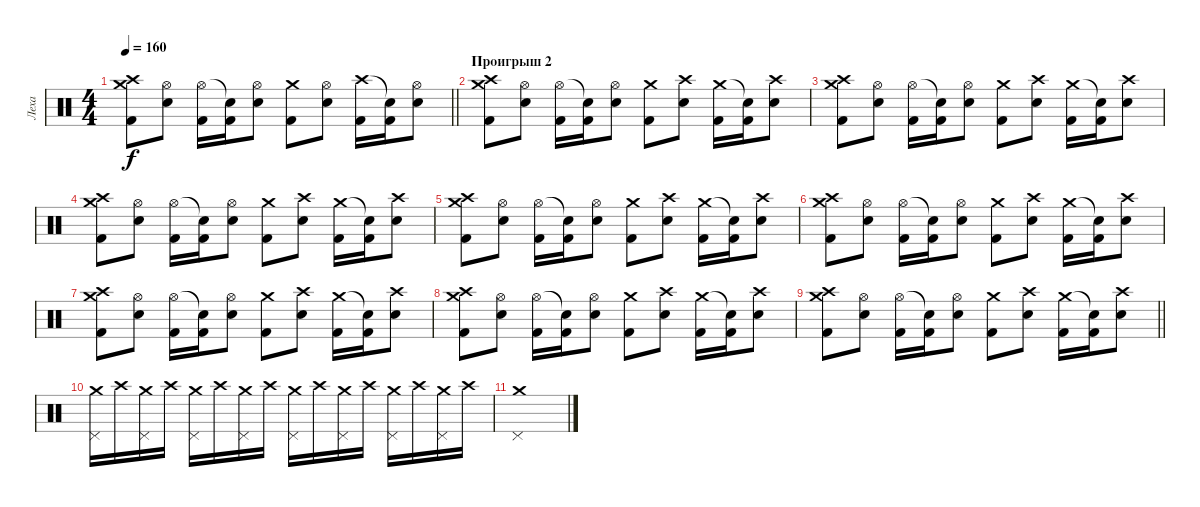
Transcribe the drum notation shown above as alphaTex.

\track ("Леха" "Леха") {instrument percussion}
\staff {score}
\articulation defaults
\ts (4 4)
\tempo 160
\clef neutral
\barLineRight lightlight
\ks c
("Crash medium (hit)" "Crash high (hit)" "Kick (hit) 2").8{dy f} ("Hi-Hat (open)" "Snare (hit) 2").8 ("Hi-Hat (open)" "Kick (hit) 2").16 ("Snare (hit)"{t} "Kick (hit) 2").16 ("Hi-Hat (open)" "Snare (hit) 2").8 ("Crash medium (hit)" "Kick (hit) 2").8 ("Hi-Hat (open)" "Snare (hit) 2").8 ("Crash high (hit)" "Kick (hit) 2").16 ("Snare (hit)"{t} "Kick (hit) 2").16 ("Hi-Hat (open)" "Snare (hit) 2").8 |
\section ("" "Проигрыш 2")
("Crash medium (hit)" "Crash high (hit)" "Kick (hit) 2").8 ("Hi-Hat (open)" "Snare (hit) 2").8 ("Hi-Hat (open)" "Kick (hit) 2").16 ("Snare (hit)"{t} "Kick (hit) 2").16 ("Hi-Hat (open)" "Snare (hit) 2").8 ("Crash medium (hit)" "Kick (hit) 2").8 ("Crash high (hit)" "Snare (hit) 2").8 ("Crash medium (hit)" "Kick (hit) 2").16 ("Snare (hit)"{t} "Kick (hit) 2").16 ("Crash high (hit)" "Snare (hit) 2").8 |
("Crash medium (hit)" "Crash high (hit)" "Kick (hit) 2").8 ("Hi-Hat (open)" "Snare (hit) 2").8 ("Hi-Hat (open)" "Kick (hit) 2").16 ("Snare (hit)"{t} "Kick (hit) 2").16 ("Hi-Hat (open)" "Snare (hit) 2").8 ("Crash medium (hit)" "Kick (hit) 2").8 ("Crash high (hit)" "Snare (hit) 2").8 ("Crash medium (hit)" "Kick (hit) 2").16 ("Snare (hit)"{t} "Kick (hit) 2").16 ("Crash high (hit)" "Snare (hit) 2").8 |
("Crash medium (hit)" "Crash high (hit)" "Kick (hit) 2").8 ("Hi-Hat (open)" "Snare (hit) 2").8 ("Hi-Hat (open)" "Kick (hit) 2").16 ("Snare (hit)"{t} "Kick (hit) 2").16 ("Hi-Hat (open)" "Snare (hit) 2").8 ("Crash medium (hit)" "Kick (hit) 2").8 ("Crash high (hit)" "Snare (hit) 2").8 ("Crash medium (hit)" "Kick (hit) 2").16 ("Snare (hit)"{t} "Kick (hit) 2").16 ("Crash high (hit)" "Snare (hit) 2").8 |
("Crash medium (hit)" "Crash high (hit)" "Kick (hit) 2").8 ("Hi-Hat (open)" "Snare (hit) 2").8 ("Hi-Hat (open)" "Kick (hit) 2").16 ("Snare (hit)"{t} "Kick (hit) 2").16 ("Hi-Hat (open)" "Snare (hit) 2").8 ("Crash medium (hit)" "Kick (hit) 2").8 ("Crash high (hit)" "Snare (hit) 2").8 ("Crash medium (hit)" "Kick (hit) 2").16 ("Snare (hit)"{t} "Kick (hit) 2").16 ("Crash high (hit)" "Snare (hit) 2").8 |
("Crash medium (hit)" "Crash high (hit)" "Kick (hit) 2").8 ("Hi-Hat (open)" "Snare (hit) 2").8 ("Hi-Hat (open)" "Kick (hit) 2").16 ("Snare (hit)"{t} "Kick (hit) 2").16 ("Hi-Hat (open)" "Snare (hit) 2").8 ("Crash medium (hit)" "Kick (hit) 2").8 ("Crash high (hit)" "Snare (hit) 2").8 ("Crash medium (hit)" "Kick (hit) 2").16 ("Snare (hit)"{t} "Kick (hit) 2").16 ("Crash high (hit)" "Snare (hit) 2").8 |
("Crash medium (hit)" "Crash high (hit)" "Kick (hit) 2").8 ("Hi-Hat (open)" "Snare (hit) 2").8 ("Hi-Hat (open)" "Kick (hit) 2").16 ("Snare (hit)"{t} "Kick (hit) 2").16 ("Hi-Hat (open)" "Snare (hit) 2").8 ("Crash medium (hit)" "Kick (hit) 2").8 ("Crash high (hit)" "Snare (hit) 2").8 ("Crash medium (hit)" "Kick (hit) 2").16 ("Snare (hit)"{t} "Kick (hit) 2").16 ("Crash high (hit)" "Snare (hit) 2").8 |
("Crash medium (hit)" "Crash high (hit)" "Kick (hit) 2").8 ("Hi-Hat (open)" "Snare (hit) 2").8 ("Hi-Hat (open)" "Kick (hit) 2").16 ("Snare (hit)"{t} "Kick (hit) 2").16 ("Hi-Hat (open)" "Snare (hit) 2").8 ("Crash medium (hit)" "Kick (hit) 2").8 ("Crash high (hit)" "Snare (hit) 2").8 ("Crash medium (hit)" "Kick (hit) 2").16 ("Snare (hit)"{t} "Kick (hit) 2").16 ("Crash high (hit)" "Snare (hit) 2").8 |
\barLineRight lightlight
("Crash medium (hit)" "Crash high (hit)" "Kick (hit) 2").8 ("Hi-Hat (open)" "Snare (hit) 2").8 ("Hi-Hat (open)" "Kick (hit) 2").16 ("Snare (hit)"{t} "Kick (hit) 2").16 ("Hi-Hat (open)" "Snare (hit) 2").8 ("Crash medium (hit)" "Kick (hit) 2").8 ("Crash high (hit)" "Snare (hit) 2").8 ("Crash medium (hit)" "Kick (hit) 2").16 ("Snare (hit)"{t} "Kick (hit) 2").16 ("Crash high (hit)" "Snare (hit) 2").8 |
("Crash medium (hit)" "Pedal Hi-Hat (hit)").16 "Crash high (hit)".16 ("Crash medium (hit)" "Pedal Hi-Hat (hit)").16 "Crash high (hit)".16 ("Crash medium (hit)" "Pedal Hi-Hat (hit)").16 "Crash high (hit)".16 ("Crash medium (hit)" "Pedal Hi-Hat (hit)").16 "Crash high (hit)".16 ("Crash medium (hit)" "Pedal Hi-Hat (hit)").16 "Crash high (hit)".16 ("Crash medium (hit)" "Pedal Hi-Hat (hit)").16 "Crash high (hit)".16 ("Crash medium (hit)" "Pedal Hi-Hat (hit)").16 "Crash high (hit)".16 ("Crash medium (hit)" "Pedal Hi-Hat (hit)").16 "Crash high (hit)".16 |
("Crash medium (hit)" "Pedal Hi-Hat (hit)").1
